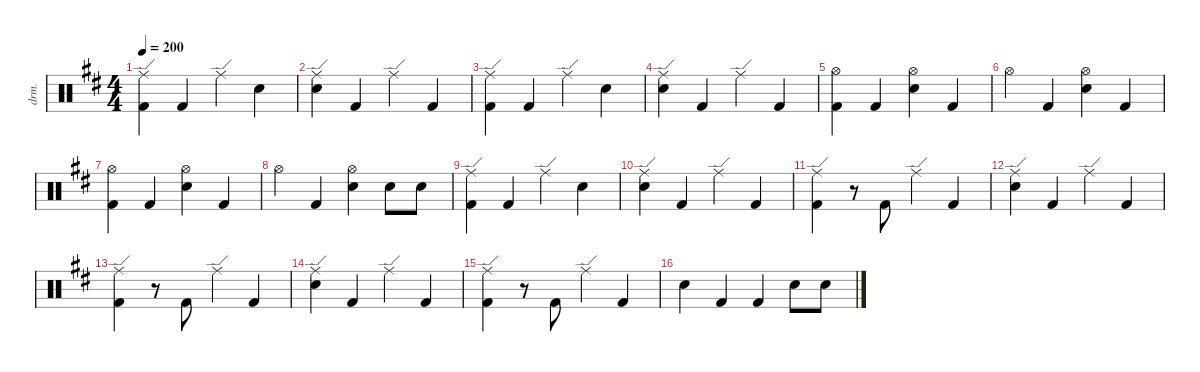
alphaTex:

\defaultSystemsLayout 4
\hideDynamics
\bracketExtendMode nobrackets
\otherSystemsTrackNameOrientation horizontal
\track ("Drums" "drm.") {instrument percussion}
\staff {score}
\articulation defaults
\ts (4 4)
\tempo 200
\clef neutral
\ks d
("Kick (hit) 2"{acc forcenatural} "Ride (edge)"{acc #}).4{dy ff beam Down} "Kick (hit) 2"{acc forcenatural}.4{beam Up} "Ride (edge)"{acc #}.4{beam Down} "Snare (hit) 2"{acc forcenatural}.4{dy mp beam Down} |
("Snare (hit) 2"{acc forcenatural} "Ride (edge)"{acc #}).4{dy ff beam Down} "Kick (hit) 2"{acc forcenatural}.4{beam Up} "Ride (edge)"{acc #}.4{beam Down} "Kick (hit) 2"{acc forcenatural}.4{beam Up} |
("Kick (hit) 2"{acc forcenatural} "Ride (edge)"{acc #}).4{beam Down} "Kick (hit) 2"{acc forcenatural}.4{beam Up} "Ride (edge)"{acc #}.4{beam Down} "Snare (hit) 2"{acc forcenatural}.4{dy mf beam Down} |
("Snare (hit) 2"{acc forcenatural} "Ride (edge)"{acc #}).4{dy ff beam Down} "Kick (hit) 2"{acc forcenatural}.4{beam Up} "Ride (edge)"{acc #}.4{beam Down} "Kick (hit) 2"{acc forcenatural}.4{beam Up} |
("Kick (hit) 2"{acc forcenatural} "Hi-Hat (open)"{acc #}).4{beam Down} "Kick (hit) 2"{acc forcenatural}.4{beam Up} ("Snare (hit) 2"{acc forcenatural} "Hi-Hat (open)"{acc #}).4{beam Down} "Kick (hit) 2"{acc forcenatural}.4{beam Up} |
"Hi-Hat (open)"{acc #}.4{beam Down} "Kick (hit) 2"{acc forcenatural}.4{beam Up} ("Snare (hit) 2"{acc forcenatural} "Hi-Hat (open)"{acc #}).4{beam Down} "Kick (hit) 2"{acc forcenatural}.4{beam Up} |
("Kick (hit) 2"{acc forcenatural} "Hi-Hat (open)"{acc #}).4{beam Down} "Kick (hit) 2"{acc forcenatural}.4{beam Up} ("Snare (hit) 2"{acc forcenatural} "Hi-Hat (open)"{acc #}).4{beam Down} "Kick (hit) 2"{acc forcenatural}.4{beam Up} |
"Hi-Hat (open)"{acc #}.4{beam Down} "Kick (hit) 2"{acc forcenatural}.4{beam Up} ("Snare (hit) 2"{acc forcenatural} "Hi-Hat (open)"{acc #}).4{beam Down} "Snare (hit) 2"{acc forcenatural}.8{beam Down} "Snare (hit) 2"{acc forcenatural}.8{beam Down} |
("Kick (hit) 2"{acc forcenatural} "Ride (edge)"{acc #}).4{beam Down} "Kick (hit) 2"{acc forcenatural}.4{beam Up} "Ride (edge)"{acc #}.4{beam Down} "Snare (hit) 2"{acc forcenatural}.4{dy mp beam Down} |
("Snare (hit) 2"{acc forcenatural} "Ride (edge)"{acc #}).4{dy ff beam Down} "Kick (hit) 2"{acc forcenatural}.4{beam Up} "Ride (edge)"{acc #}.4{beam Down} "Kick (hit) 2"{acc forcenatural}.4{beam Up} |
("Kick (hit) 2"{acc forcenatural} "Ride (edge)"{acc #}).4{beam Down} r.8{beam Down} "Kick (hit) 2"{acc forcenatural}.8{beam Up} "Ride (edge)"{acc #}.4{beam Down} "Kick (hit) 2"{acc forcenatural}.4{beam Up} |
("Snare (hit) 2"{acc forcenatural} "Ride (edge)"{acc #}).4{beam Down} "Kick (hit) 2"{acc forcenatural}.4{beam Up} "Ride (edge)"{acc #}.4{beam Down} "Kick (hit) 2"{acc forcenatural}.4{beam Up} |
("Kick (hit) 2"{acc forcenatural} "Ride (edge)"{acc #}).4{beam Down} r.8{beam Down} "Kick (hit) 2"{acc forcenatural}.8{beam Up} "Ride (edge)"{acc #}.4{beam Down} "Kick (hit) 2"{acc forcenatural}.4{beam Up} |
("Snare (hit) 2"{acc forcenatural} "Ride (edge)"{acc #}).4{beam Down} "Kick (hit) 2"{acc forcenatural}.4{beam Up} "Ride (edge)"{acc #}.4{beam Down} "Kick (hit) 2"{acc forcenatural}.4{beam Up} |
("Kick (hit) 2"{acc forcenatural} "Ride (edge)"{acc #}).4{beam Down} r.8{beam Down} "Kick (hit) 2"{acc forcenatural}.8{beam Up} "Ride (edge)"{acc #}.4{beam Down} "Kick (hit) 2"{acc forcenatural}.4{beam Up} |
"Snare (hit) 2"{acc forcenatural}.4{beam Down} "Kick (hit) 2"{acc forcenatural}.4{dy fff beam Up} "Kick (hit) 2"{acc forcenatural}.4{beam Up} "Snare (hit) 2"{acc forcenatural}.8{beam Down} "Snare (hit) 2"{acc forcenatural}.8{beam Down}
